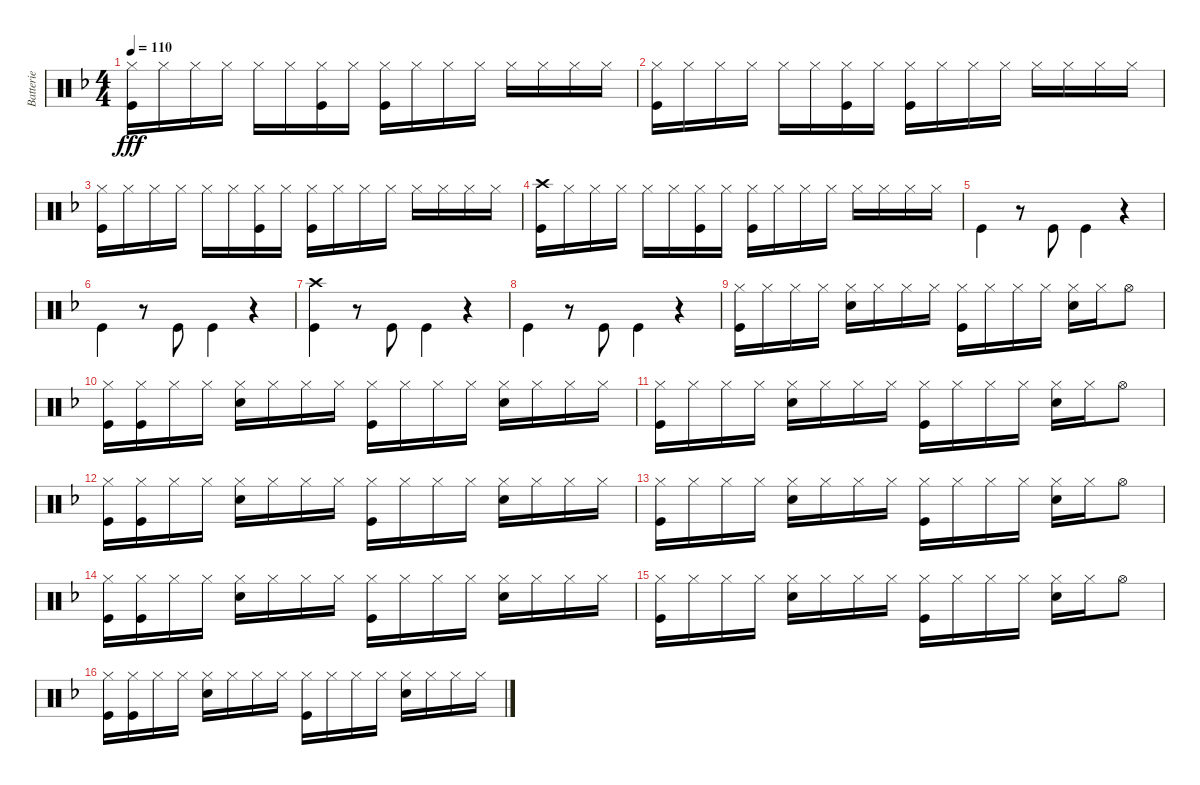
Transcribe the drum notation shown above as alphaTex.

\track ("Batterie" "Batterie") {instrument percussion}
\staff {score}
\articulation defaults
\ts (4 4)
\tempo 110
\clef neutral
\ks f
("Hi-Hat (closed)" "Kick (hit)").16{dy fff} "Hi-Hat (closed)".16 "Hi-Hat (closed)".16 "Hi-Hat (closed)".16 "Hi-Hat (closed)".16 "Hi-Hat (closed)".16 ("Hi-Hat (closed)" "Kick (hit)").16 "Hi-Hat (closed)".16 ("Hi-Hat (closed)" "Kick (hit)").16 "Hi-Hat (closed)".16 "Hi-Hat (closed)".16 "Hi-Hat (closed)".16 "Hi-Hat (closed)".16 "Hi-Hat (closed)".16 "Hi-Hat (closed)".16 "Hi-Hat (closed)".16 |
("Hi-Hat (closed)" "Kick (hit)").16 "Hi-Hat (closed)".16 "Hi-Hat (closed)".16 "Hi-Hat (closed)".16 "Hi-Hat (closed)".16 "Hi-Hat (closed)".16 ("Hi-Hat (closed)" "Kick (hit)").16 "Hi-Hat (closed)".16 ("Hi-Hat (closed)" "Kick (hit)").16 "Hi-Hat (closed)".16 "Hi-Hat (closed)".16 "Hi-Hat (closed)".16 "Hi-Hat (closed)".16 "Hi-Hat (closed)".16 "Hi-Hat (closed)".16 "Hi-Hat (closed)".16 |
("Hi-Hat (closed)" "Kick (hit)").16 "Hi-Hat (closed)".16 "Hi-Hat (closed)".16 "Hi-Hat (closed)".16 "Hi-Hat (closed)".16 "Hi-Hat (closed)".16 ("Hi-Hat (closed)" "Kick (hit)").16 "Hi-Hat (closed)".16 ("Hi-Hat (closed)" "Kick (hit)").16 "Hi-Hat (closed)".16 "Hi-Hat (closed)".16 "Hi-Hat (closed)".16 "Hi-Hat (closed)".16 "Hi-Hat (closed)".16 "Hi-Hat (closed)".16 "Hi-Hat (closed)".16 |
("Crash high (hit)" "Kick (hit)").16 "Hi-Hat (closed)".16 "Hi-Hat (closed)".16 "Hi-Hat (closed)".16 "Hi-Hat (closed)".16 "Hi-Hat (closed)".16 ("Hi-Hat (closed)" "Kick (hit)").16 "Hi-Hat (closed)".16 ("Hi-Hat (closed)" "Kick (hit)").16 "Hi-Hat (closed)".16 "Hi-Hat (closed)".16 "Hi-Hat (closed)".16 "Hi-Hat (closed)".16 "Hi-Hat (closed)".16 "Hi-Hat (closed)".16 "Hi-Hat (closed)".16 |
"Kick (hit)".4{beam Down} r.8 "Kick (hit)".8{beam Down} "Kick (hit)".4{beam Down} r.4 |
"Kick (hit)".4{beam Down} r.8 "Kick (hit)".8{beam Down} "Kick (hit)".4{beam Down} r.4 |
("Crash high (hit)" "Kick (hit)").4{beam Down} r.8 "Kick (hit)".8{beam Down} "Kick (hit)".4{beam Down} r.4 |
"Kick (hit)".4{beam Down} r.8 "Kick (hit)".8{beam Down} "Kick (hit)".4{beam Down} r.4 |
("Hi-Hat (closed)" "Kick (hit)").16 "Hi-Hat (closed)".16 "Hi-Hat (closed)".16 "Hi-Hat (closed)".16 ("Hi-Hat (closed)" "Snare (hit) 2").16 "Hi-Hat (closed)".16 "Hi-Hat (closed)".16 "Hi-Hat (closed)".16 ("Hi-Hat (closed)" "Kick (hit)").16 "Hi-Hat (closed)".16 "Hi-Hat (closed)".16 "Hi-Hat (closed)".16 ("Hi-Hat (closed)" "Snare (hit) 2").16 "Hi-Hat (closed)".16 "Hi-Hat (open)".8 |
("Hi-Hat (closed)" "Kick (hit)").16 ("Hi-Hat (closed)" "Kick (hit)").16 "Hi-Hat (closed)".16 "Hi-Hat (closed)".16 ("Hi-Hat (closed)" "Snare (hit) 2").16 "Hi-Hat (closed)".16 "Hi-Hat (closed)".16 "Hi-Hat (closed)".16 ("Hi-Hat (closed)" "Kick (hit)").16 "Hi-Hat (closed)".16 "Hi-Hat (closed)".16 "Hi-Hat (closed)".16 ("Hi-Hat (closed)" "Snare (hit) 2").16 "Hi-Hat (closed)".16 "Hi-Hat (closed)".16 "Hi-Hat (closed)".16 |
("Hi-Hat (closed)" "Kick (hit)").16 "Hi-Hat (closed)".16 "Hi-Hat (closed)".16 "Hi-Hat (closed)".16 ("Hi-Hat (closed)" "Snare (hit) 2").16 "Hi-Hat (closed)".16 "Hi-Hat (closed)".16 "Hi-Hat (closed)".16 ("Hi-Hat (closed)" "Kick (hit)").16 "Hi-Hat (closed)".16 "Hi-Hat (closed)".16 "Hi-Hat (closed)".16 ("Hi-Hat (closed)" "Snare (hit) 2").16 "Hi-Hat (closed)".16 "Hi-Hat (open)".8 |
("Hi-Hat (closed)" "Kick (hit)").16 ("Hi-Hat (closed)" "Kick (hit)").16 "Hi-Hat (closed)".16 "Hi-Hat (closed)".16 ("Hi-Hat (closed)" "Snare (hit) 2").16 "Hi-Hat (closed)".16 "Hi-Hat (closed)".16 "Hi-Hat (closed)".16 ("Hi-Hat (closed)" "Kick (hit)").16 "Hi-Hat (closed)".16 "Hi-Hat (closed)".16 "Hi-Hat (closed)".16 ("Hi-Hat (closed)" "Snare (hit) 2").16 "Hi-Hat (closed)".16 "Hi-Hat (closed)".16 "Hi-Hat (closed)".16 |
("Hi-Hat (closed)" "Kick (hit)").16 "Hi-Hat (closed)".16 "Hi-Hat (closed)".16 "Hi-Hat (closed)".16 ("Hi-Hat (closed)" "Snare (hit) 2").16 "Hi-Hat (closed)".16 "Hi-Hat (closed)".16 "Hi-Hat (closed)".16 ("Hi-Hat (closed)" "Kick (hit)").16 "Hi-Hat (closed)".16 "Hi-Hat (closed)".16 "Hi-Hat (closed)".16 ("Hi-Hat (closed)" "Snare (hit) 2").16 "Hi-Hat (closed)".16 "Hi-Hat (open)".8 |
("Hi-Hat (closed)" "Kick (hit)").16 ("Hi-Hat (closed)" "Kick (hit)").16 "Hi-Hat (closed)".16 "Hi-Hat (closed)".16 ("Hi-Hat (closed)" "Snare (hit) 2").16 "Hi-Hat (closed)".16 "Hi-Hat (closed)".16 "Hi-Hat (closed)".16 ("Hi-Hat (closed)" "Kick (hit)").16 "Hi-Hat (closed)".16 "Hi-Hat (closed)".16 "Hi-Hat (closed)".16 ("Hi-Hat (closed)" "Snare (hit) 2").16 "Hi-Hat (closed)".16 "Hi-Hat (closed)".16 "Hi-Hat (closed)".16 |
("Hi-Hat (closed)" "Kick (hit)").16 "Hi-Hat (closed)".16 "Hi-Hat (closed)".16 "Hi-Hat (closed)".16 ("Hi-Hat (closed)" "Snare (hit) 2").16 "Hi-Hat (closed)".16 "Hi-Hat (closed)".16 "Hi-Hat (closed)".16 ("Hi-Hat (closed)" "Kick (hit)").16 "Hi-Hat (closed)".16 "Hi-Hat (closed)".16 "Hi-Hat (closed)".16 ("Hi-Hat (closed)" "Snare (hit) 2").16 "Hi-Hat (closed)".16 "Hi-Hat (open)".8 |
("Hi-Hat (closed)" "Kick (hit)").16 ("Hi-Hat (closed)" "Kick (hit)").16 "Hi-Hat (closed)".16 "Hi-Hat (closed)".16 ("Hi-Hat (closed)" "Snare (hit) 2").16 "Hi-Hat (closed)".16 "Hi-Hat (closed)".16 "Hi-Hat (closed)".16 ("Hi-Hat (closed)" "Kick (hit)").16 "Hi-Hat (closed)".16 "Hi-Hat (closed)".16 "Hi-Hat (closed)".16 ("Hi-Hat (closed)" "Snare (hit) 2").16 "Hi-Hat (closed)".16 "Hi-Hat (closed)".16 "Hi-Hat (closed)".16
